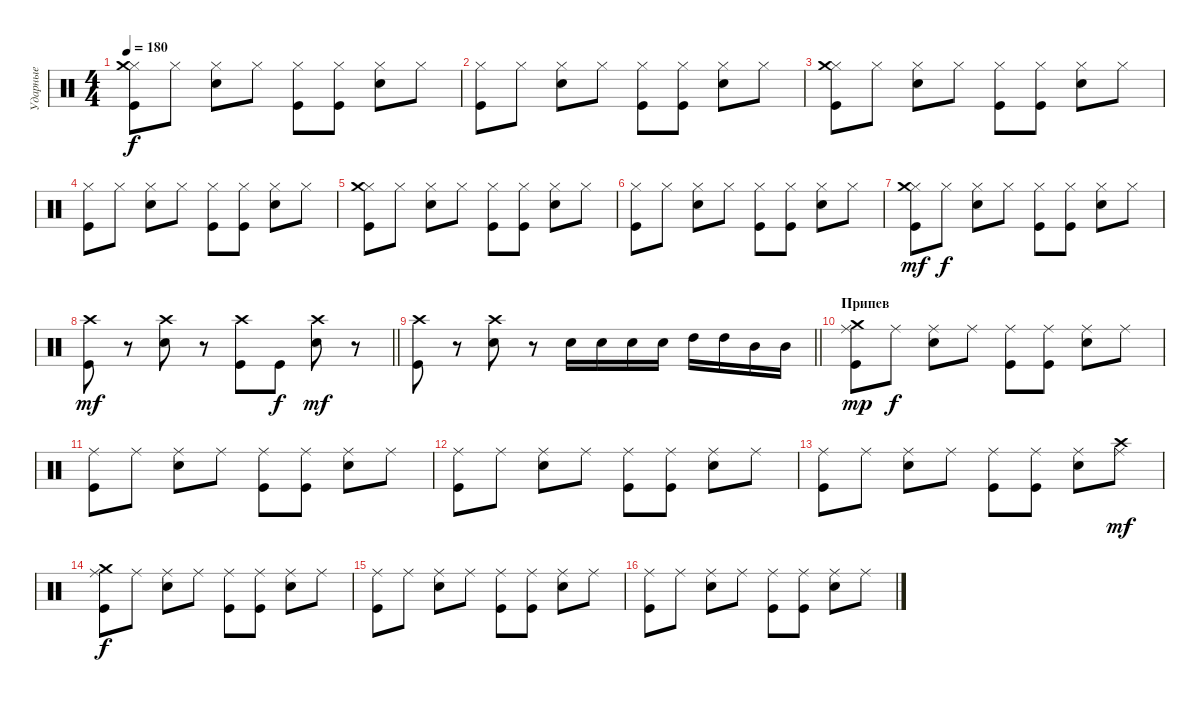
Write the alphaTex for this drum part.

\track ("Ударные" "Ударные") {instrument percussion}
\staff {score}
\articulation defaults
\ts (4 4)
\tempo 180
\clef neutral
\ks c
("Hi-Hat (closed)" "Kick (hit)" "Crash medium (hit)").8{dy f} "Hi-Hat (closed)".8 ("Hi-Hat (closed)" "Electric Snare (hit)").8 "Hi-Hat (closed)".8 ("Hi-Hat (closed)" "Kick (hit)").8 ("Hi-Hat (closed)" "Kick (hit)").8 ("Hi-Hat (closed)" "Electric Snare (hit)").8 "Hi-Hat (closed)".8 |
("Hi-Hat (closed)" "Kick (hit)").8 "Hi-Hat (closed)".8 ("Hi-Hat (closed)" "Electric Snare (hit)").8 "Hi-Hat (closed)".8 ("Hi-Hat (closed)" "Kick (hit)").8 ("Hi-Hat (closed)" "Kick (hit)").8 ("Hi-Hat (closed)" "Electric Snare (hit)").8 "Hi-Hat (closed)".8 |
("Hi-Hat (closed)" "Kick (hit)" "Crash medium (hit)").8 "Hi-Hat (closed)".8 ("Hi-Hat (closed)" "Electric Snare (hit)").8 "Hi-Hat (closed)".8 ("Hi-Hat (closed)" "Kick (hit)").8 ("Hi-Hat (closed)" "Kick (hit)").8 ("Hi-Hat (closed)" "Electric Snare (hit)").8 "Hi-Hat (closed)".8 |
("Hi-Hat (closed)" "Kick (hit)").8 "Hi-Hat (closed)".8 ("Hi-Hat (closed)" "Electric Snare (hit)").8 "Hi-Hat (closed)".8 ("Hi-Hat (closed)" "Kick (hit)").8 ("Hi-Hat (closed)" "Kick (hit)").8 ("Hi-Hat (closed)" "Electric Snare (hit)").8 "Hi-Hat (closed)".8 |
("Hi-Hat (closed)" "Kick (hit)" "Crash medium (hit)").8 "Hi-Hat (closed)".8 ("Hi-Hat (closed)" "Electric Snare (hit)").8 "Hi-Hat (closed)".8 ("Hi-Hat (closed)" "Kick (hit)").8 ("Hi-Hat (closed)" "Kick (hit)").8 ("Hi-Hat (closed)" "Electric Snare (hit)").8 "Hi-Hat (closed)".8 |
("Hi-Hat (closed)" "Kick (hit)").8 "Hi-Hat (closed)".8 ("Hi-Hat (closed)" "Electric Snare (hit)").8 "Hi-Hat (closed)".8 ("Hi-Hat (closed)" "Kick (hit)").8 ("Hi-Hat (closed)" "Kick (hit)").8 ("Hi-Hat (closed)" "Electric Snare (hit)").8 "Hi-Hat (closed)".8 |
("Hi-Hat (closed)" "Kick (hit)" "Crash medium (hit)").8{dy mf} "Hi-Hat (closed)".8{dy f} ("Hi-Hat (closed)" "Electric Snare (hit)").8 "Hi-Hat (closed)".8 ("Hi-Hat (closed)" "Kick (hit)").8 ("Hi-Hat (closed)" "Kick (hit)").8 ("Hi-Hat (closed)" "Electric Snare (hit)").8 "Hi-Hat (closed)".8 |
\barLineRight lightlight
("Kick (hit)" "Crash high (hit)").8{dy mf} r.8 ("Electric Snare (hit)" "Crash high (hit)").8 r.8 ("Kick (hit)" "Crash high (hit)").8 "Kick (hit)".8{dy f} ("Electric Snare (hit)" "Crash high (hit)").8{dy mf} r.8 |
\barLineRight lightlight
("Kick (hit)" "Crash high (hit)").8 r.8 ("Electric Snare (hit)" "Crash high (hit)").8 r.8 "Electric Snare (hit)".16 "Electric Snare (hit)".16 "Electric Snare (hit)".16 "Electric Snare (hit)".16 "High Tom (hit)".16 "High Tom (hit)".16 "Mid Tom (hit)".16 "Mid Tom (hit)".16 |
\section ("" "Припев")
("Ride (middle)" "Kick (hit)" "Crash medium (hit)").8{dy mp} "Ride (middle)".8{dy f} ("Ride (middle)" "Electric Snare (hit)").8 "Ride (middle)".8 ("Ride (middle)" "Kick (hit)").8 ("Ride (middle)" "Kick (hit)").8 ("Ride (middle)" "Electric Snare (hit)").8 "Ride (middle)".8 |
("Ride (middle)" "Kick (hit)").8 "Ride (middle)".8 ("Ride (middle)" "Electric Snare (hit)").8 "Ride (middle)".8 ("Ride (middle)" "Kick (hit)").8 ("Ride (middle)" "Kick (hit)").8 ("Ride (middle)" "Electric Snare (hit)").8 "Ride (middle)".8 |
("Ride (middle)" "Kick (hit)").8 "Ride (middle)".8 ("Ride (middle)" "Electric Snare (hit)").8 "Ride (middle)".8 ("Ride (middle)" "Kick (hit)").8 ("Ride (middle)" "Kick (hit)").8 ("Ride (middle)" "Electric Snare (hit)").8 "Ride (middle)".8 |
("Ride (middle)" "Kick (hit)").8 "Ride (middle)".8 ("Ride (middle)" "Electric Snare (hit)").8 "Ride (middle)".8 ("Ride (middle)" "Kick (hit)").8 ("Ride (middle)" "Kick (hit)").8 ("Ride (middle)" "Electric Snare (hit)").8 ("Ride (middle)" "Crash high (hit)").8{dy mf} |
("Ride (middle)" "Kick (hit)" "Crash medium (hit)").8{dy f} "Ride (middle)".8 ("Ride (middle)" "Electric Snare (hit)").8 "Ride (middle)".8 ("Ride (middle)" "Kick (hit)").8 ("Ride (middle)" "Kick (hit)").8 ("Ride (middle)" "Electric Snare (hit)").8 "Ride (middle)".8 |
("Ride (middle)" "Kick (hit)").8 "Ride (middle)".8 ("Ride (middle)" "Electric Snare (hit)").8 "Ride (middle)".8 ("Ride (middle)" "Kick (hit)").8 ("Ride (middle)" "Kick (hit)").8 ("Ride (middle)" "Electric Snare (hit)").8 "Ride (middle)".8 |
("Ride (middle)" "Kick (hit)").8 "Ride (middle)".8 ("Ride (middle)" "Electric Snare (hit)").8 "Ride (middle)".8 ("Ride (middle)" "Kick (hit)").8 ("Ride (middle)" "Kick (hit)").8 ("Ride (middle)" "Electric Snare (hit)").8 "Ride (middle)".8
